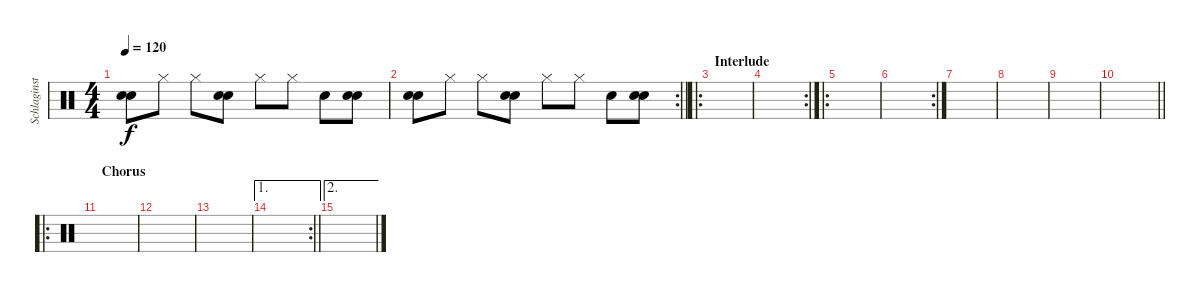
\track ("Schlaginstrumente - Auswahl" "Schlaginst") {instrument percussion}
\staff {score}
\articulation defaults
\ts (4 4)
\tempo 120
\clef neutral
\ks c
("Hand Clap (hit)" "Hand Clap (hit)").8{dy f} "Hi-Hat (closed)".8 "Hi-Hat (closed)".8 ("Hand Clap (hit)" "Hand Clap (hit)").8 "Hi-Hat (closed)".8 "Hi-Hat (closed)".8 "Hand Clap (hit)".8 ("Hand Clap (hit)" "Hand Clap (hit)").8 |
\rc 2
\barLineRight lightlight
("Hand Clap (hit)" "Hand Clap (hit)").8 "Hi-Hat (closed)".8 "Hi-Hat (closed)".8 ("Hand Clap (hit)" "Hand Clap (hit)").8 "Hi-Hat (closed)".8 "Hi-Hat (closed)".8 "Hand Clap (hit)".8 ("Hand Clap (hit)" "Hand Clap (hit)").8 |
\ro
\section ("" "Interlude")
|
\rc 2
|
\ro
|
\rc 2
|
|
|
|
\barLineRight lightlight
|
\ro
\section ("" "Chorus")
|
|
|
\ae 1
\rc 2
\barLineRight lightlight
|
\ae 2
